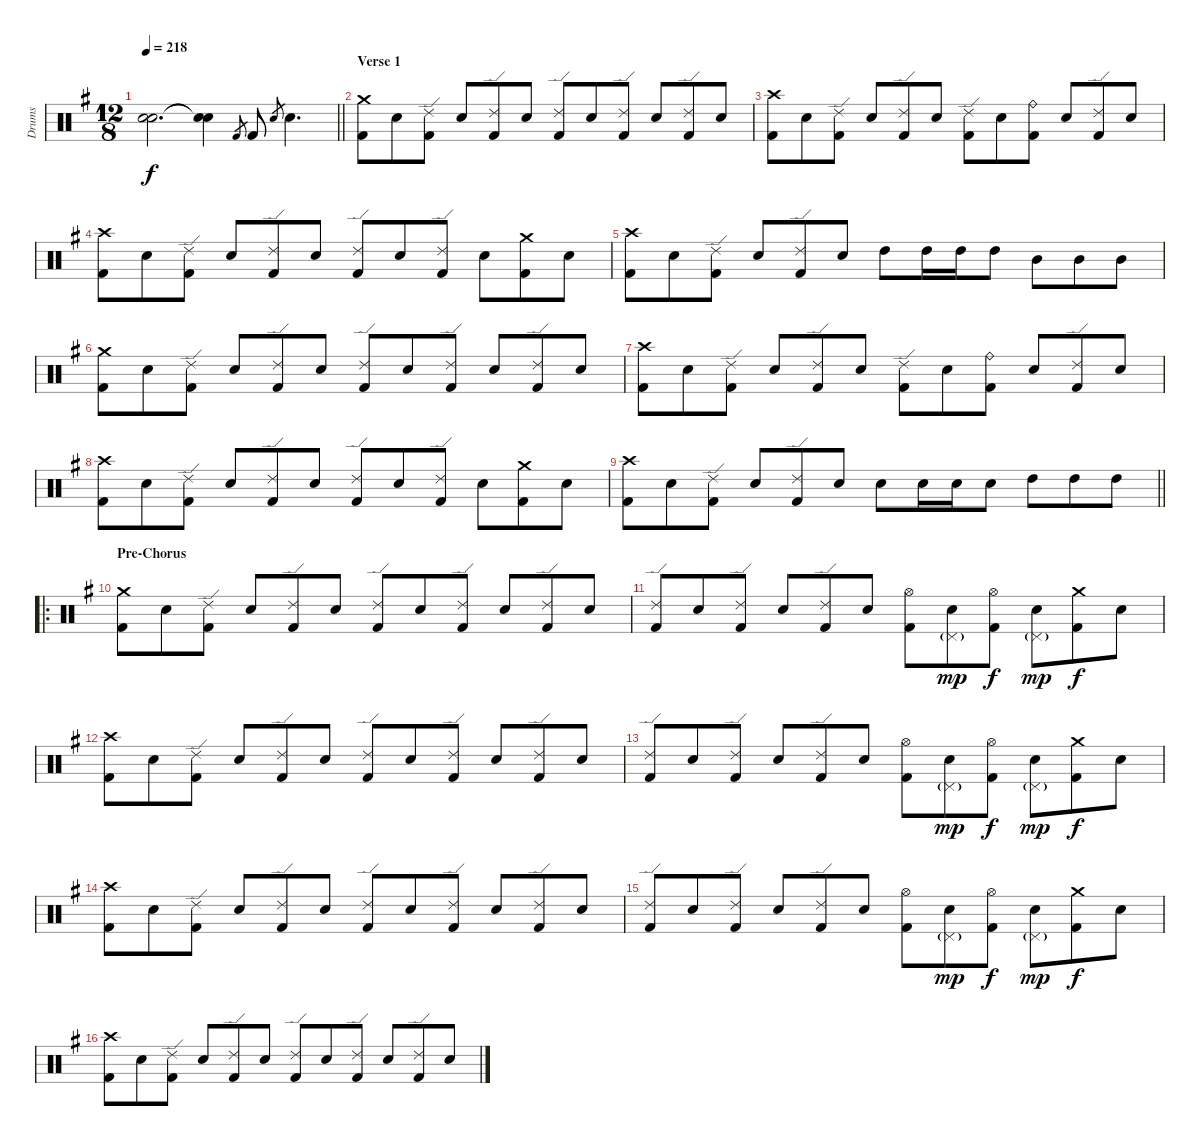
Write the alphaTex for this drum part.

\track ("Drums" "Drums") {solo instrument percussion}
\staff {score}
\articulation defaults
\ts (12 8)
\tempo 218
\clef neutral
\barLineRight lightlight
\ks eminor
("Snare (hit)"{t} "Snare (hit)"{t}).2{d dy f} ("Snare (hit)"{t} "Snare (hit)"{t}).4 "Kick (hit) 2".8{gr} "Kick (hit) 2".8 "Electric Snare (hit)".8{gr} "Electric Snare (hit)".4{d} |
\section ("" "Verse 1")
("Crash medium (hit)" "Kick (hit) 2").8 "Electric Snare (hit)".8 ("Ride (edge) 2" "Kick (hit) 2").8 "Electric Snare (hit)".8 ("Ride (edge) 2" "Kick (hit) 2").8 "Electric Snare (hit)".8 ("Ride (edge) 2" "Kick (hit) 2").8 "Electric Snare (hit)".8 ("Ride (edge) 2" "Kick (hit) 2").8 "Electric Snare (hit)".8 ("Ride (edge) 2" "Kick (hit) 2").8 "Electric Snare (hit)".8 |
("Crash high (hit)" "Kick (hit) 2").8 "Electric Snare (hit)".8 ("Ride (edge) 2" "Kick (hit) 2").8 "Electric Snare (hit)".8 ("Ride (edge) 2" "Kick (hit) 2").8 "Electric Snare (hit)".8 ("Ride (edge) 2" "Kick (hit) 2").8 "Electric Snare (hit)".8 ("Ride (bell)" "Kick (hit) 2").8 "Electric Snare (hit)".8 ("Ride (edge) 2" "Kick (hit) 2").8 "Electric Snare (hit)".8 |
("Crash high (hit)" "Kick (hit) 2").8 "Electric Snare (hit)".8 ("Ride (edge) 2" "Kick (hit) 2").8 "Electric Snare (hit)".8 ("Ride (edge) 2" "Kick (hit) 2").8 "Electric Snare (hit)".8 ("Ride (edge) 2" "Kick (hit) 2").8 "Electric Snare (hit)".8 ("Ride (edge) 2" "Kick (hit) 2").8 "Electric Snare (hit)".8 ("Crash medium (hit)" "Kick (hit) 2").8 "Electric Snare (hit)".8 |
("Crash high (hit)" "Kick (hit) 2").8 "Electric Snare (hit)".8 ("Ride (edge) 2" "Kick (hit) 2").8 "Electric Snare (hit)".8 ("Ride (edge) 2" "Kick (hit) 2").8 "Electric Snare (hit)".8 "High Tom (hit)".8 "High Tom (hit)".16 "High Tom (hit)".16 "High Tom (hit)".8 "Mid Tom (hit)".8 "Mid Tom (hit)".8 "Mid Tom (hit)".8 |
("Crash medium (hit)" "Kick (hit) 2").8 "Electric Snare (hit)".8 ("Ride (edge) 2" "Kick (hit) 2").8 "Electric Snare (hit)".8 ("Ride (edge) 2" "Kick (hit) 2").8 "Electric Snare (hit)".8 ("Ride (edge) 2" "Kick (hit) 2").8 "Electric Snare (hit)".8 ("Ride (edge) 2" "Kick (hit) 2").8 "Electric Snare (hit)".8 ("Ride (edge) 2" "Kick (hit) 2").8 "Electric Snare (hit)".8 |
("Crash high (hit)" "Kick (hit) 2").8 "Electric Snare (hit)".8 ("Ride (edge) 2" "Kick (hit) 2").8 "Electric Snare (hit)".8 ("Ride (edge) 2" "Kick (hit) 2").8 "Electric Snare (hit)".8 ("Ride (edge) 2" "Kick (hit) 2").8 "Electric Snare (hit)".8 ("Ride (bell)" "Kick (hit) 2").8 "Electric Snare (hit)".8 ("Ride (edge) 2" "Kick (hit) 2").8 "Electric Snare (hit)".8 |
("Crash high (hit)" "Kick (hit) 2").8 "Electric Snare (hit)".8 ("Ride (edge) 2" "Kick (hit) 2").8 "Electric Snare (hit)".8 ("Ride (edge) 2" "Kick (hit) 2").8 "Electric Snare (hit)".8 ("Ride (edge) 2" "Kick (hit) 2").8 "Electric Snare (hit)".8 ("Ride (edge) 2" "Kick (hit) 2").8 "Electric Snare (hit)".8 ("Crash medium (hit)" "Kick (hit) 2").8 "Electric Snare (hit)".8 |
\barLineRight lightlight
("Crash high (hit)" "Kick (hit) 2").8 "Electric Snare (hit)".8 ("Ride (edge) 2" "Kick (hit) 2").8 "Electric Snare (hit)".8 ("Ride (edge) 2" "Kick (hit) 2").8 "Electric Snare (hit)".8 "Electric Snare (hit)".8 "Electric Snare (hit)".16 "Electric Snare (hit)".16 "Electric Snare (hit)".8 "High Tom (hit)".8 "High Tom (hit)".8 "High Tom (hit)".8 |
\ro
\section ("" "Pre-Chorus")
("Crash medium (hit)" "Kick (hit) 2").8 "Electric Snare (hit)".8 ("Ride (edge) 2" "Kick (hit) 2").8 "Electric Snare (hit)".8 ("Ride (edge) 2" "Kick (hit) 2").8 "Electric Snare (hit)".8 ("Ride (edge) 2" "Kick (hit) 2").8 "Electric Snare (hit)".8 ("Ride (edge) 2" "Kick (hit) 2").8 "Electric Snare (hit)".8 ("Ride (edge) 2" "Kick (hit) 2").8 "Electric Snare (hit)".8 |
("Ride (edge) 2" "Kick (hit) 2").8 "Electric Snare (hit)".8 ("Ride (edge) 2" "Kick (hit) 2").8 "Electric Snare (hit)".8 ("Ride (edge) 2" "Kick (hit) 2").8 "Electric Snare (hit)".8 ("Hi-Hat (open)" "Kick (hit) 2").8 ("Pedal Hi-Hat (hit)"{g} "Electric Snare (hit)").8{dy mp} ("Hi-Hat (open)" "Kick (hit) 2").8{dy f} ("Pedal Hi-Hat (hit)"{g} "Electric Snare (hit)").8{dy mp} ("Crash medium (hit)" "Kick (hit) 2").8{dy f} "Electric Snare (hit)".8 |
("Crash high (hit)" "Kick (hit) 2").8 "Electric Snare (hit)".8 ("Ride (edge) 2" "Kick (hit) 2").8 "Electric Snare (hit)".8 ("Ride (edge) 2" "Kick (hit) 2").8 "Electric Snare (hit)".8 ("Ride (edge) 2" "Kick (hit) 2").8 "Electric Snare (hit)".8 ("Ride (edge) 2" "Kick (hit) 2").8 "Electric Snare (hit)".8 ("Ride (edge) 2" "Kick (hit) 2").8 "Electric Snare (hit)".8 |
("Ride (edge) 2" "Kick (hit) 2").8 "Electric Snare (hit)".8 ("Ride (edge) 2" "Kick (hit) 2").8 "Electric Snare (hit)".8 ("Ride (edge) 2" "Kick (hit) 2").8 "Electric Snare (hit)".8 ("Hi-Hat (open)" "Kick (hit) 2").8 ("Pedal Hi-Hat (hit)"{g} "Electric Snare (hit)").8{dy mp} ("Hi-Hat (open)" "Kick (hit) 2").8{dy f} ("Pedal Hi-Hat (hit)"{g} "Electric Snare (hit)").8{dy mp} ("Crash medium (hit)" "Kick (hit) 2").8{dy f} "Electric Snare (hit)".8 |
("Crash high (hit)" "Kick (hit) 2").8 "Electric Snare (hit)".8 ("Ride (edge) 2" "Kick (hit) 2").8 "Electric Snare (hit)".8 ("Ride (edge) 2" "Kick (hit) 2").8 "Electric Snare (hit)".8 ("Ride (edge) 2" "Kick (hit) 2").8 "Electric Snare (hit)".8 ("Ride (edge) 2" "Kick (hit) 2").8 "Electric Snare (hit)".8 ("Ride (edge) 2" "Kick (hit) 2").8 "Electric Snare (hit)".8 |
("Ride (edge) 2" "Kick (hit) 2").8 "Electric Snare (hit)".8 ("Ride (edge) 2" "Kick (hit) 2").8 "Electric Snare (hit)".8 ("Ride (edge) 2" "Kick (hit) 2").8 "Electric Snare (hit)".8 ("Hi-Hat (open)" "Kick (hit) 2").8 ("Pedal Hi-Hat (hit)"{g} "Electric Snare (hit)").8{dy mp} ("Hi-Hat (open)" "Kick (hit) 2").8{dy f} ("Pedal Hi-Hat (hit)"{g} "Electric Snare (hit)").8{dy mp} ("Crash medium (hit)" "Kick (hit) 2").8{dy f} "Electric Snare (hit)".8 |
("Crash high (hit)" "Kick (hit) 2").8 "Electric Snare (hit)".8 ("Ride (edge) 2" "Kick (hit) 2").8 "Electric Snare (hit)".8 ("Ride (edge) 2" "Kick (hit) 2").8 "Electric Snare (hit)".8 ("Ride (edge) 2" "Kick (hit) 2").8 "Electric Snare (hit)".8 ("Ride (edge) 2" "Kick (hit) 2").8 "Electric Snare (hit)".8 ("Ride (edge) 2" "Kick (hit) 2").8 "Electric Snare (hit)".8
